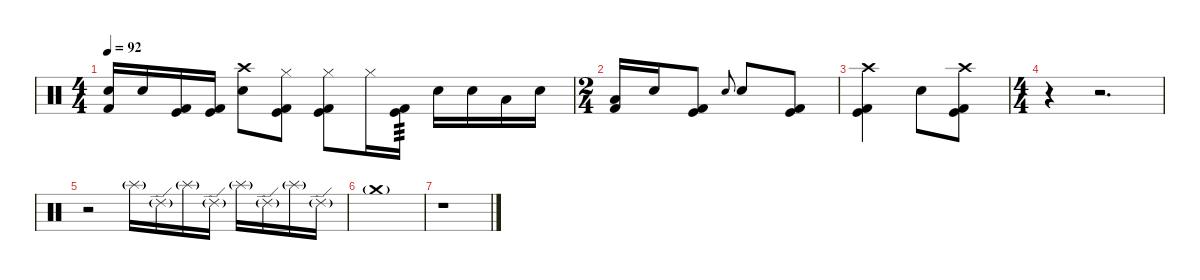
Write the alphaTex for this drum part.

\defaultSystemsLayout 4
\hideDynamics
\bracketExtendMode nobrackets
\singleTrackTrackNamePolicy hidden
\multiTrackTrackNamePolicy hidden
\otherSystemsTrackNameOrientation horizontal
\track ("Lars" "drm.") {instrument percussion}
\staff {score}
\articulation defaults
\ts (4 4)
\tempo 92
\clef neutral
\ks c
("Snare (hit) 2" "Kick (hit) 2").16{dy f beam Up} "Snare (hit) 2".16{beam Up} ("Kick (hit)" "Kick (hit) 2").16{beam Up} ("Kick (hit)" "Kick (hit) 2").16{beam Up} ("Crash high (hit)" "Snare (hit) 2").8{beam Down} ("Hi-Hat (closed)" "Kick (hit)" "Kick (hit) 2").8{beam Down} ("Hi-Hat (closed)" "Kick (hit)" "Kick (hit) 2").8{beam Down} "Hi-Hat (closed)".16{beam Down} ("Kick (hit)" "Kick (hit) 2").16{tp 3 beam Down} "Snare (hit) 2".16{beam Down} "Snare (hit) 2".16{beam Down} "Low Floor Tom (hit)".16{beam Down} "Snare (hit) 2".16{beam Down} |
\ts (2 4)
\beaming (8 2 2)
("Kick (hit) 2" "Low Floor Tom (hit)").16{beam Up} "Snare (hit) 2".16{beam Up} ("Kick (hit)" "Kick (hit) 2").8{beam Up} "Electric Snare (hit)".8{gr onbeat dy mf beam Up} "Snare (hit) 2".8{dy f beam Up} ("Kick (hit)" "Kick (hit) 2").8{beam Up} |
("Crash high (hit)" "Kick (hit)" "Kick (hit) 2").4{beam Down} "Snare (hit) 2".8{beam Down} ("Crash high (hit)" "Kick (hit)" "Kick (hit) 2").8{beam Down} |
\ts (4 4)
\beaming (8 2 2 2 2)
r.4{beam Down} r.2{d beam Down} |
r.2{beam Down} "Splash (hit)"{g}.16{dy pp beam Down} "Ride (edge) 2"{g}.16{beam Down} "Splash (hit)"{g}.16{dy p beam Down} "Ride (edge) 2"{g}.16{beam Down} "Splash (hit)"{g}.16{dy mp beam Down} "Ride (edge) 2"{g}.16{beam Down} "Splash (hit)"{g}.16{dy mf beam Down} "Ride (edge) 2"{g}.16{beam Down} |
"Crash medium (hit)"{g}.1{dy p beam Down} |
r.1{beam Down}
